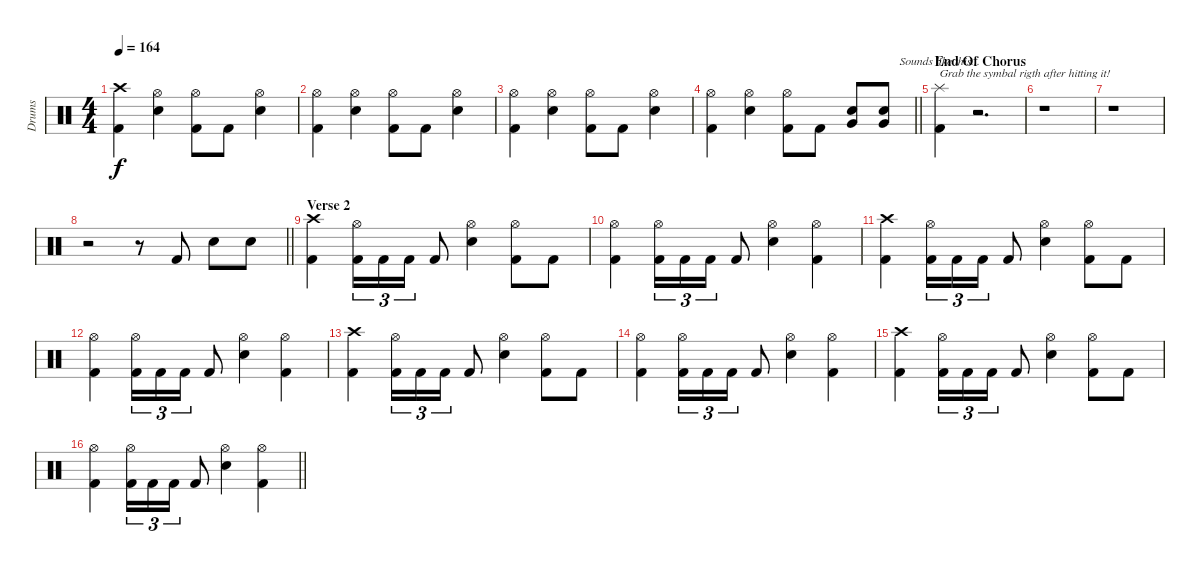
\track ("Drums" "Drums") {instrument percussion}
\staff {score}
\articulation defaults
\chord ("Sounds like this...") {firstfret 0}
\ts (4 4)
\tempo 164
\clef neutral
\ks c
("Crash high (hit)" "Kick (hit) 2").4{dy f} ("Hi-Hat (open)" "Snare (hit) 2").4 ("Hi-Hat (open)" "Kick (hit) 2").8 "Kick (hit) 2".8 ("Hi-Hat (open)" "Snare (hit) 2").4 |
("Hi-Hat (open)" "Kick (hit) 2").4 ("Hi-Hat (open)" "Snare (hit) 2").4 ("Hi-Hat (open)" "Kick (hit) 2").8 "Kick (hit) 2".8 ("Hi-Hat (open)" "Snare (hit) 2").4 |
("Hi-Hat (open)" "Kick (hit) 2").4 ("Hi-Hat (open)" "Snare (hit) 2").4 ("Hi-Hat (open)" "Kick (hit) 2").8 "Kick (hit) 2".8 ("Hi-Hat (open)" "Snare (hit) 2").4 |
\barLineRight lightlight
("Hi-Hat (open)" "Kick (hit) 2").4 ("Hi-Hat (open)" "Snare (hit) 2").4 ("Hi-Hat (open)" "Kick (hit) 2").8 "Kick (hit) 2".8 ("Very Low Tom (hit)" "Snare (hit) 2").8 ("Very Low Tom (hit)" "Snare (hit) 2").8 |
\section ("" "End Of Chorus")
("Splash (hit)" "Kick (hit) 2").4{ch "Sounds like this..." txt "Grab the symbal rigth after hitting it!"} r.2{d} |
r.1 |
r.1 |
\barLineRight lightlight
r.2 r.8 "Kick (hit) 2".8 "Snare (hit) 2".8 "Snare (hit) 2".8 |
\section ("" "Verse 2")
("Crash high (hit)" "Kick (hit) 2").4 ("Hi-Hat (open)" "Kick (hit) 2").16{tu (3 2)} "Kick (hit) 2".16{tu (3 2)} "Kick (hit) 2".16{tu (3 2)} "Kick (hit) 2".8 ("Hi-Hat (open)" "Snare (hit) 2").4 ("Hi-Hat (open)" "Kick (hit) 2").8 "Kick (hit) 2".8 |
("Hi-Hat (open)" "Kick (hit) 2").4 ("Hi-Hat (open)" "Kick (hit) 2").16{tu (3 2)} "Kick (hit) 2".16{tu (3 2)} "Kick (hit) 2".16{tu (3 2)} "Kick (hit) 2".8 ("Hi-Hat (open)" "Snare (hit) 2").4 ("Hi-Hat (open)" "Kick (hit) 2").4 |
("Crash high (hit)" "Kick (hit) 2").4 ("Hi-Hat (open)" "Kick (hit) 2").16{tu (3 2)} "Kick (hit) 2".16{tu (3 2)} "Kick (hit) 2".16{tu (3 2)} "Kick (hit) 2".8 ("Hi-Hat (open)" "Snare (hit) 2").4 ("Hi-Hat (open)" "Kick (hit) 2").8 "Kick (hit) 2".8 |
("Hi-Hat (open)" "Kick (hit) 2").4 ("Hi-Hat (open)" "Kick (hit) 2").16{tu (3 2)} "Kick (hit) 2".16{tu (3 2)} "Kick (hit) 2".16{tu (3 2)} "Kick (hit) 2".8 ("Hi-Hat (open)" "Snare (hit) 2").4 ("Hi-Hat (open)" "Kick (hit) 2").4 |
("Crash high (hit)" "Kick (hit) 2").4 ("Hi-Hat (open)" "Kick (hit) 2").16{tu (3 2)} "Kick (hit) 2".16{tu (3 2)} "Kick (hit) 2".16{tu (3 2)} "Kick (hit) 2".8 ("Hi-Hat (open)" "Snare (hit) 2").4 ("Hi-Hat (open)" "Kick (hit) 2").8 "Kick (hit) 2".8 |
("Hi-Hat (open)" "Kick (hit) 2").4 ("Hi-Hat (open)" "Kick (hit) 2").16{tu (3 2)} "Kick (hit) 2".16{tu (3 2)} "Kick (hit) 2".16{tu (3 2)} "Kick (hit) 2".8 ("Hi-Hat (open)" "Snare (hit) 2").4 ("Hi-Hat (open)" "Kick (hit) 2").4 |
("Crash high (hit)" "Kick (hit) 2").4 ("Hi-Hat (open)" "Kick (hit) 2").16{tu (3 2)} "Kick (hit) 2".16{tu (3 2)} "Kick (hit) 2".16{tu (3 2)} "Kick (hit) 2".8 ("Hi-Hat (open)" "Snare (hit) 2").4 ("Hi-Hat (open)" "Kick (hit) 2").8 "Kick (hit) 2".8 |
\barLineRight lightlight
("Hi-Hat (open)" "Kick (hit) 2").4 ("Hi-Hat (open)" "Kick (hit) 2").16{tu (3 2)} "Kick (hit) 2".16{tu (3 2)} "Kick (hit) 2".16{tu (3 2)} "Kick (hit) 2".8 ("Hi-Hat (open)" "Snare (hit) 2").4 ("Hi-Hat (open)" "Kick (hit) 2").4
